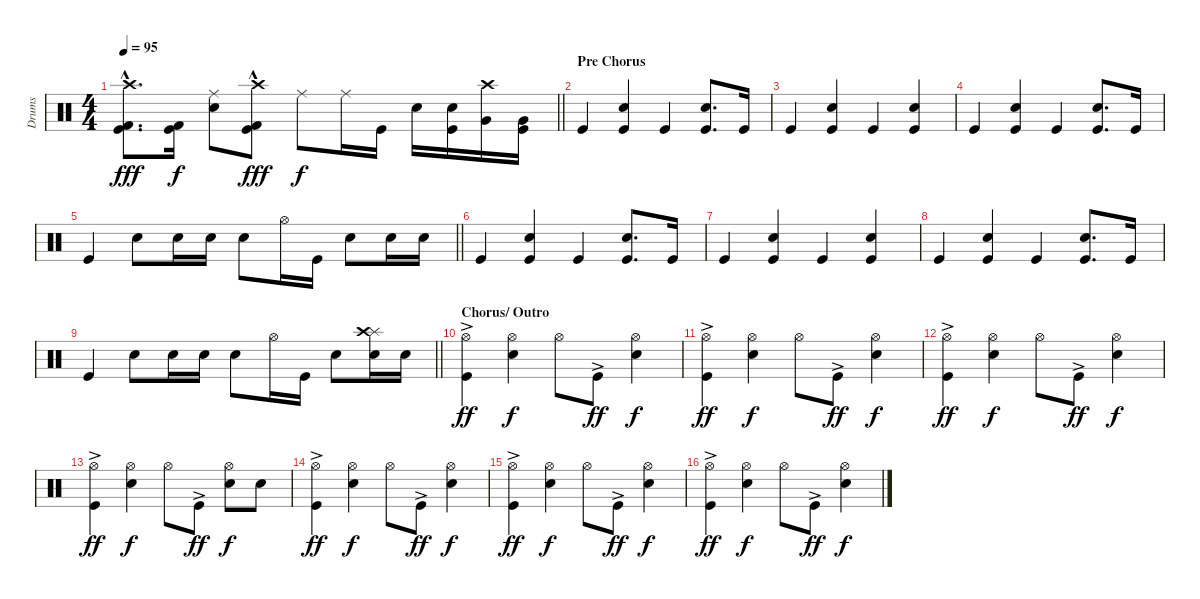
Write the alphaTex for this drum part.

\track ("Drums" "Drums") {instrument percussion}
\staff {score}
\articulation defaults
\ts (4 4)
\tempo 95
\clef neutral
\barLineRight lightlight
\ks c
("Kick (hit)"{hac} "Kick (hit) 2" "Crash high (hit)").8{d dy fff} ("Kick (hit)" "Kick (hit) 2").16{dy f} ("Ride (middle)" "Snare (hit) 2").8 ("Kick (hit)"{hac} "Crash high (hit)" "Kick (hit) 2").8{dy fff} "Ride (middle)".8{dy f} "Ride (middle)".16 "Kick (hit)".16 "Snare (hit) 2".16 ("Kick (hit)" "Snare (hit) 2").16 ("Crash high (hit)" "Very Low Tom (hit)").16 ("Kick (hit)" "Very Low Tom (hit)").16 |
\section ("" "Pre Chorus")
"Kick (hit)".4 ("Kick (hit)" "Snare (hit) 2").4 "Kick (hit)".4 ("Kick (hit)" "Snare (hit) 2").8{d} "Kick (hit)".16 |
"Kick (hit)".4 ("Kick (hit)" "Snare (hit) 2").4 "Kick (hit)".4 ("Kick (hit)" "Snare (hit) 2").4 |
"Kick (hit)".4 ("Kick (hit)" "Snare (hit) 2").4 "Kick (hit)".4 ("Kick (hit)" "Snare (hit) 2").8{d} "Kick (hit)".16 |
\barLineRight lightlight "Kick (hit)".4 "Snare (hit) 2".8 "Snare (hit) 2".16 "Snare (hit) 2".16 "Snare (hit) 2".8 "Hi-Hat (open)".16 "Kick (hit)".16 "Snare (hit) 2".8 "Snare (hit) 2".16 "Snare (hit) 2".16
|
"Kick (hit)".4 ("Kick (hit)" "Snare (hit) 2").4 "Kick (hit)".4 ("Kick (hit)" "Snare (hit) 2").8{d} "Kick (hit)".16 |
"Kick (hit)".4 ("Kick (hit)" "Snare (hit) 2").4 "Kick (hit)".4 ("Kick (hit)" "Snare (hit) 2").4 |
"Kick (hit)".4 ("Kick (hit)" "Snare (hit) 2").4 "Kick (hit)".4 ("Kick (hit)" "Snare (hit) 2").8{d} "Kick (hit)".16 |
\barLineRight lightlight "Kick (hit)".4 "Snare (hit) 2".8 "Snare (hit) 2".16 "Snare (hit) 2".16 "Snare (hit) 2".8 "Hi-Hat (open)".16 "Kick (hit)".16 "Snare (hit) 2".8
("Snare (hit) 2" "Splash (hit)" "Crash high (hit)").16 "Snare (hit) 2".16 |
\section ("" "Chorus/ Outro")
("Kick (hit)"{ac} "Hi-Hat (open)").4{dy ff} ("Snare (hit) 2" "Hi-Hat (open)").4{dy f} "Hi-Hat (open)".8 "Kick (hit)"{ac}.8{dy ff} ("Hi-Hat (open)" "Snare (hit) 2").4{dy f} |
("Kick (hit)"{ac} "Hi-Hat (open)").4{dy ff} ("Snare (hit) 2" "Hi-Hat (open)").4{dy f} "Hi-Hat (open)".8 "Kick (hit)"{ac}.8{dy ff} ("Hi-Hat (open)" "Snare (hit) 2").4{dy f} |
("Kick (hit)"{ac} "Hi-Hat (open)").4{dy ff} ("Snare (hit) 2" "Hi-Hat (open)").4{dy f} "Hi-Hat (open)".8 "Kick (hit)"{ac}.8{dy ff} ("Hi-Hat (open)" "Snare (hit) 2").4{dy f} |
("Kick (hit)"{ac} "Hi-Hat (open)").4{dy ff} ("Snare (hit) 2" "Hi-Hat (open)").4{dy f} "Hi-Hat (open)".8 "Kick (hit)"{ac}.8{dy ff} ("Hi-Hat (open)" "Snare (hit) 2").8{dy f} "Snare (hit) 2".8 |
("Kick (hit)"{ac} "Hi-Hat (open)").4{dy ff} ("Snare (hit) 2" "Hi-Hat (open)").4{dy f} "Hi-Hat (open)".8 "Kick (hit)"{ac}.8{dy ff} ("Hi-Hat (open)" "Snare (hit) 2").4{dy f} |
("Kick (hit)"{ac} "Hi-Hat (open)").4{dy ff} ("Snare (hit) 2" "Hi-Hat (open)").4{dy f} "Hi-Hat (open)".8 "Kick (hit)"{ac}.8{dy ff} ("Hi-Hat (open)" "Snare (hit) 2").4{dy f} |
("Kick (hit)"{ac} "Hi-Hat (open)").4{dy ff} ("Snare (hit) 2" "Hi-Hat (open)").4{dy f} "Hi-Hat (open)".8 "Kick (hit)"{ac}.8{dy ff} ("Hi-Hat (open)" "Snare (hit) 2").4{dy f}
